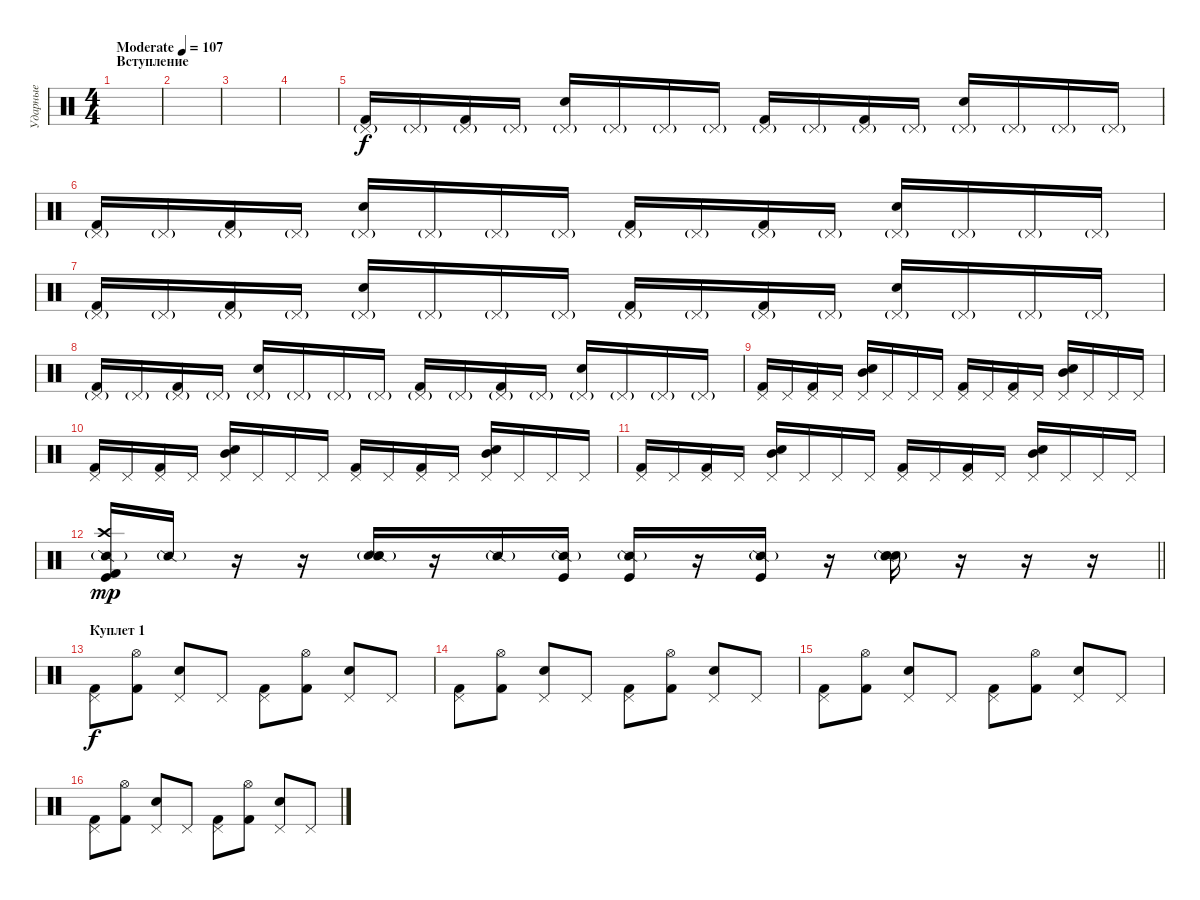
\track ("Ударные" "Ударные") {instrument percussion}
\staff {score}
\articulation defaults
\ts (4 4)
\section ("" "Вступление")
\tempo (107 "Moderate")
\clef neutral
\ks c
|
|
|
|
("Kick (hit) 2" "Pedal Hi-Hat (hit)"{g}).16 "Pedal Hi-Hat (hit)"{g}.16 ("Kick (hit) 2" "Pedal Hi-Hat (hit)"{g}).16 "Pedal Hi-Hat (hit)"{g}.16 ("Hand Clap (hit)" "Pedal Hi-Hat (hit)"{g}).16 "Pedal Hi-Hat (hit)"{g}.16 "Pedal Hi-Hat (hit)"{g}.16 "Pedal Hi-Hat (hit)"{g}.16 ("Kick (hit) 2" "Pedal Hi-Hat (hit)"{g}).16 "Pedal Hi-Hat (hit)"{g}.16 ("Kick (hit) 2" "Pedal Hi-Hat (hit)"{g}).16 "Pedal Hi-Hat (hit)"{g}.16 ("Hand Clap (hit)" "Pedal Hi-Hat (hit)"{g}).16 "Pedal Hi-Hat (hit)"{g}.16 "Pedal Hi-Hat (hit)"{g}.16 "Pedal Hi-Hat (hit)"{g}.16 |
("Kick (hit) 2" "Pedal Hi-Hat (hit)"{g}).16 "Pedal Hi-Hat (hit)"{g}.16 ("Kick (hit) 2" "Pedal Hi-Hat (hit)"{g}).16 "Pedal Hi-Hat (hit)"{g}.16 ("Hand Clap (hit)" "Pedal Hi-Hat (hit)"{g}).16 "Pedal Hi-Hat (hit)"{g}.16 "Pedal Hi-Hat (hit)"{g}.16 "Pedal Hi-Hat (hit)"{g}.16 ("Kick (hit) 2" "Pedal Hi-Hat (hit)"{g}).16 "Pedal Hi-Hat (hit)"{g}.16 ("Kick (hit) 2" "Pedal Hi-Hat (hit)"{g}).16 "Pedal Hi-Hat (hit)"{g}.16 ("Hand Clap (hit)" "Pedal Hi-Hat (hit)"{g}).16 "Pedal Hi-Hat (hit)"{g}.16 "Pedal Hi-Hat (hit)"{g}.16 "Pedal Hi-Hat (hit)"{g}.16 |
("Kick (hit) 2" "Pedal Hi-Hat (hit)"{g}).16 "Pedal Hi-Hat (hit)"{g}.16 ("Kick (hit) 2" "Pedal Hi-Hat (hit)"{g}).16 "Pedal Hi-Hat (hit)"{g}.16 ("Hand Clap (hit)" "Pedal Hi-Hat (hit)"{g}).16 "Pedal Hi-Hat (hit)"{g}.16 "Pedal Hi-Hat (hit)"{g}.16 "Pedal Hi-Hat (hit)"{g}.16 ("Kick (hit) 2" "Pedal Hi-Hat (hit)"{g}).16 "Pedal Hi-Hat (hit)"{g}.16 ("Kick (hit) 2" "Pedal Hi-Hat (hit)"{g}).16 "Pedal Hi-Hat (hit)"{g}.16 ("Hand Clap (hit)" "Pedal Hi-Hat (hit)"{g}).16 "Pedal Hi-Hat (hit)"{g}.16 "Pedal Hi-Hat (hit)"{g}.16 "Pedal Hi-Hat (hit)"{g}.16 |
("Kick (hit) 2" "Pedal Hi-Hat (hit)"{g}).16 "Pedal Hi-Hat (hit)"{g}.16 ("Kick (hit) 2" "Pedal Hi-Hat (hit)"{g}).16 "Pedal Hi-Hat (hit)"{g}.16 ("Hand Clap (hit)" "Pedal Hi-Hat (hit)"{g}).16 "Pedal Hi-Hat (hit)"{g}.16 "Pedal Hi-Hat (hit)"{g}.16 "Pedal Hi-Hat (hit)"{g}.16 ("Kick (hit) 2" "Pedal Hi-Hat (hit)"{g}).16 "Pedal Hi-Hat (hit)"{g}.16 ("Kick (hit) 2" "Pedal Hi-Hat (hit)"{g}).16 "Pedal Hi-Hat (hit)"{g}.16 ("Hand Clap (hit)" "Pedal Hi-Hat (hit)"{g}).16 "Pedal Hi-Hat (hit)"{g}.16 "Pedal Hi-Hat (hit)"{g}.16 "Pedal Hi-Hat (hit)"{g}.16 |
("Kick (hit) 2" "Pedal Hi-Hat (hit)").16{dy f} "Pedal Hi-Hat (hit)".16 ("Kick (hit) 2" "Pedal Hi-Hat (hit)").16 "Pedal Hi-Hat (hit)".16 ("Snare (hit) 2" "Pedal Hi-Hat (hit)" "Mid Tom (hit)").16 "Pedal Hi-Hat (hit)".16 "Pedal Hi-Hat (hit)".16 "Pedal Hi-Hat (hit)".16 ("Kick (hit) 2" "Pedal Hi-Hat (hit)").16 "Pedal Hi-Hat (hit)".16 ("Kick (hit) 2" "Pedal Hi-Hat (hit)").16 "Pedal Hi-Hat (hit)".16 ("Snare (hit) 2" "Pedal Hi-Hat (hit)" "Mid Tom (hit)").16 "Pedal Hi-Hat (hit)".16 "Pedal Hi-Hat (hit)".16 "Pedal Hi-Hat (hit)".16 |
("Kick (hit) 2" "Pedal Hi-Hat (hit)").16 "Pedal Hi-Hat (hit)".16 ("Kick (hit) 2" "Pedal Hi-Hat (hit)").16 "Pedal Hi-Hat (hit)".16 ("Snare (hit) 2" "Pedal Hi-Hat (hit)" "Mid Tom (hit)").16 "Pedal Hi-Hat (hit)".16 "Pedal Hi-Hat (hit)".16 "Pedal Hi-Hat (hit)".16 ("Kick (hit) 2" "Pedal Hi-Hat (hit)").16 "Pedal Hi-Hat (hit)".16 ("Kick (hit) 2" "Pedal Hi-Hat (hit)").16 "Pedal Hi-Hat (hit)".16 ("Snare (hit) 2" "Pedal Hi-Hat (hit)" "Mid Tom (hit)").16 "Pedal Hi-Hat (hit)".16 "Pedal Hi-Hat (hit)".16 "Pedal Hi-Hat (hit)".16 |
("Kick (hit) 2" "Pedal Hi-Hat (hit)").16 "Pedal Hi-Hat (hit)".16 ("Kick (hit) 2" "Pedal Hi-Hat (hit)").16 "Pedal Hi-Hat (hit)".16 ("Snare (hit) 2" "Pedal Hi-Hat (hit)" "Mid Tom (hit)").16 "Pedal Hi-Hat (hit)".16 "Pedal Hi-Hat (hit)".16 "Pedal Hi-Hat (hit)".16 ("Kick (hit) 2" "Pedal Hi-Hat (hit)").16 "Pedal Hi-Hat (hit)".16 ("Kick (hit) 2" "Pedal Hi-Hat (hit)").16 "Pedal Hi-Hat (hit)".16 ("Snare (hit) 2" "Pedal Hi-Hat (hit)" "Mid Tom (hit)").16 "Pedal Hi-Hat (hit)".16 "Pedal Hi-Hat (hit)".16 "Pedal Hi-Hat (hit)".16 |
\barLineRight lightlight
("Kick (hit) 2" "Crash high (hit)" "Kick (hit)" "Snare (side stick) 2"{g}).16{dy mp} "Snare (side stick) 2"{g}.16 r.16 r.16 ("Hand Clap (hit)" "Electric Snare (hit)" "Snare (side stick) 2"{g}).16 r.16 "Snare (side stick) 2"{g}.16 ("Kick (hit)" "Snare (side stick) 2"{g}).16 ("Kick (hit)" "Snare (side stick) 2"{g}).16 r.16 ("Kick (hit)" "Snare (side stick) 2"{g}).16 r.16 ("Hand Clap (hit)" "Electric Snare (hit)" "Snare (side stick) 2"{g}).16 r.16 r.16 r.16 |
\section ("" "Куплет 1")
("Kick (hit) 2" "Pedal Hi-Hat (hit)").8{dy f} ("Kick (hit) 2" "Hi-Hat (open)").8 ("Pedal Hi-Hat (hit)" "Snare (hit) 2").8 "Pedal Hi-Hat (hit)".8 ("Kick (hit) 2" "Pedal Hi-Hat (hit)").8 ("Kick (hit) 2" "Hi-Hat (open)").8 ("Pedal Hi-Hat (hit)" "Snare (hit) 2").8 "Pedal Hi-Hat (hit)".8 |
("Kick (hit) 2" "Pedal Hi-Hat (hit)").8 ("Kick (hit) 2" "Hi-Hat (open)").8 ("Pedal Hi-Hat (hit)" "Snare (hit) 2").8 "Pedal Hi-Hat (hit)".8 ("Kick (hit) 2" "Pedal Hi-Hat (hit)").8 ("Kick (hit) 2" "Hi-Hat (open)").8 ("Pedal Hi-Hat (hit)" "Snare (hit) 2").8 "Pedal Hi-Hat (hit)".8 |
("Kick (hit) 2" "Pedal Hi-Hat (hit)").8 ("Kick (hit) 2" "Hi-Hat (open)").8 ("Pedal Hi-Hat (hit)" "Snare (hit) 2").8 "Pedal Hi-Hat (hit)".8 ("Kick (hit) 2" "Pedal Hi-Hat (hit)").8 ("Kick (hit) 2" "Hi-Hat (open)").8 ("Pedal Hi-Hat (hit)" "Snare (hit) 2").8 "Pedal Hi-Hat (hit)".8 |
("Kick (hit) 2" "Pedal Hi-Hat (hit)").8 ("Kick (hit) 2" "Hi-Hat (open)").8 ("Pedal Hi-Hat (hit)" "Snare (hit) 2").8 "Pedal Hi-Hat (hit)".8 ("Kick (hit) 2" "Pedal Hi-Hat (hit)").8 ("Kick (hit) 2" "Hi-Hat (open)").8 ("Pedal Hi-Hat (hit)" "Snare (hit) 2").8 "Pedal Hi-Hat (hit)".8
